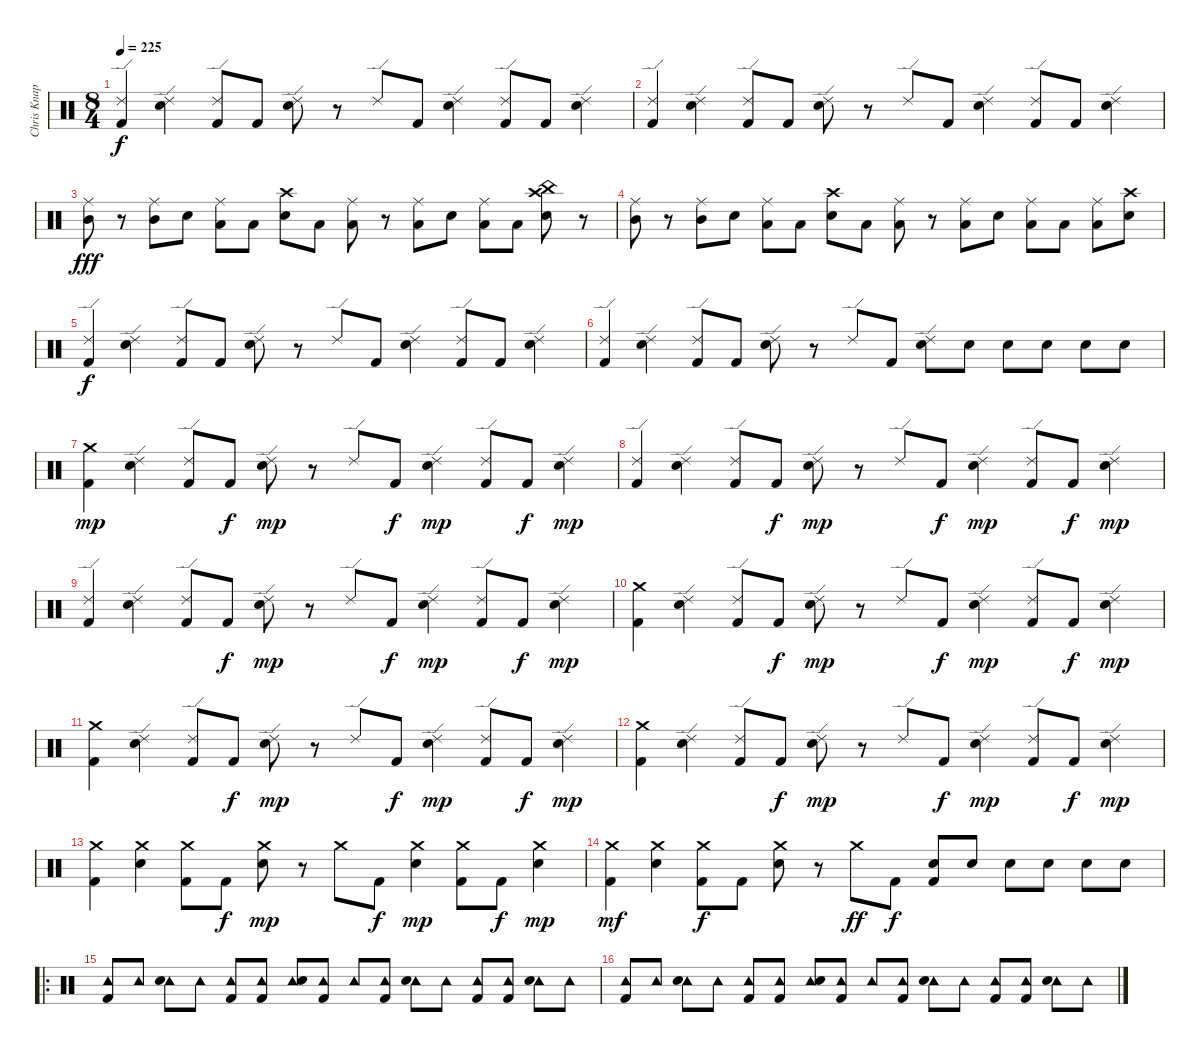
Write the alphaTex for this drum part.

\track ("Chris Knapp" "Chris Knap") {instrument percussion}
\staff {score}
\articulation defaults
\ts (8 4)
\tempo 225
\clef neutral
\ks c
("Ride (edge) 2" "Kick (hit) 2").4{dy f} ("Ride (edge) 2" "Electric Snare (hit)").4 ("Ride (edge) 2" "Kick (hit) 2").8 "Kick (hit) 2".8 ("Ride (edge) 2" "Electric Snare (hit)").8 r.8 "Ride (edge) 2".8 "Kick (hit) 2".8 ("Ride (edge) 2" "Electric Snare (hit)").4 ("Ride (edge) 2" "Kick (hit) 2").8 "Kick (hit) 2".8 ("Ride (edge) 2" "Electric Snare (hit)").4 |
("Ride (edge) 2" "Kick (hit) 2").4 ("Ride (edge) 2" "Electric Snare (hit)").4 ("Ride (edge) 2" "Kick (hit) 2").8 "Kick (hit) 2".8 ("Ride (edge) 2" "Electric Snare (hit)").8 r.8 "Ride (edge) 2".8 "Kick (hit) 2".8 ("Ride (edge) 2" "Electric Snare (hit)").4 ("Ride (edge) 2" "Kick (hit) 2").8 "Kick (hit) 2".8 ("Ride (edge) 2" "Electric Snare (hit)").4 |
("Ride (middle)" "Mid Tom (hit)").8{dy fff} r.8 ("Ride (middle)" "Mid Tom (hit)").8 "Electric Snare (hit)".8 ("Ride (middle)" "Low Floor Tom (hit)").8 "Low Floor Tom (hit)".8 ("Crash high (hit)" "Electric Snare (hit)").8 "Low Floor Tom (hit)".8 ("Ride (middle)" "Low Floor Tom (hit)").8 r.8 ("Ride (middle)" "Low Floor Tom (hit)").8 "Electric Snare (hit)".8 ("Ride (middle)" "Low Floor Tom (hit)").8 "Low Floor Tom (hit)".8 ("China (hit)" "Electric Snare (hit)" "Crash high (hit)").8 r.8 |
("Ride (middle)" "Mid Tom (hit)").8 r.8 ("Ride (middle)" "Mid Tom (hit)").8 "Electric Snare (hit)".8 ("Ride (middle)" "Low Floor Tom (hit)").8 "Low Floor Tom (hit)".8 ("Crash high (hit)" "Electric Snare (hit)").8 "Low Floor Tom (hit)".8 ("Ride (middle)" "Low Floor Tom (hit)").8 r.8 ("Ride (middle)" "Low Floor Tom (hit)").8 "Electric Snare (hit)".8 ("Ride (middle)" "Low Floor Tom (hit)").8 "Low Floor Tom (hit)".8 ("Ride (middle)" "Low Floor Tom (hit)").8 ("Electric Snare (hit)" "Crash high (hit)").8 |
("Ride (edge) 2" "Kick (hit) 2").4{dy f} ("Ride (edge) 2" "Electric Snare (hit)").4 ("Ride (edge) 2" "Kick (hit) 2").8 "Kick (hit) 2".8 ("Ride (edge) 2" "Electric Snare (hit)").8 r.8 "Ride (edge) 2".8 "Kick (hit) 2".8 ("Ride (edge) 2" "Electric Snare (hit)").4 ("Ride (edge) 2" "Kick (hit) 2").8 "Kick (hit) 2".8 ("Ride (edge) 2" "Electric Snare (hit)").4 |
("Ride (edge) 2" "Kick (hit) 2").4 ("Ride (edge) 2" "Electric Snare (hit)").4 ("Ride (edge) 2" "Kick (hit) 2").8 "Kick (hit) 2".8 ("Ride (edge) 2" "Electric Snare (hit)").8 r.8 "Ride (edge) 2".8 "Kick (hit) 2".8 ("Ride (edge) 2" "Electric Snare (hit)").8 "Electric Snare (hit)".8 "Electric Snare (hit)".8 "Electric Snare (hit)".8 "Electric Snare (hit)".8 "Electric Snare (hit)".8 |
("Crash medium (hit)" "Kick (hit) 2").4{dy mp} ("Ride (edge) 2" "Electric Snare (hit)").4 ("Ride (edge) 2" "Kick (hit) 2").8 "Kick (hit) 2".8{dy f} ("Ride (edge) 2" "Electric Snare (hit)").8{dy mp} r.8 "Ride (edge) 2".8 "Kick (hit) 2".8{dy f} ("Ride (edge) 2" "Electric Snare (hit)").4{dy mp} ("Ride (edge) 2" "Kick (hit) 2").8 "Kick (hit) 2".8{dy f} ("Ride (edge) 2" "Electric Snare (hit)").4{dy mp} |
("Ride (edge) 2" "Kick (hit) 2").4 ("Ride (edge) 2" "Electric Snare (hit)").4 ("Ride (edge) 2" "Kick (hit) 2").8 "Kick (hit) 2".8{dy f} ("Ride (edge) 2" "Electric Snare (hit)").8{dy mp} r.8 "Ride (edge) 2".8 "Kick (hit) 2".8{dy f} ("Ride (edge) 2" "Electric Snare (hit)").4{dy mp} ("Ride (edge) 2" "Kick (hit) 2").8 "Kick (hit) 2".8{dy f} ("Ride (edge) 2" "Electric Snare (hit)").4{dy mp} |
("Ride (edge) 2" "Kick (hit) 2").4 ("Ride (edge) 2" "Electric Snare (hit)").4 ("Ride (edge) 2" "Kick (hit) 2").8 "Kick (hit) 2".8{dy f} ("Ride (edge) 2" "Electric Snare (hit)").8{dy mp} r.8 "Ride (edge) 2".8 "Kick (hit) 2".8{dy f} ("Ride (edge) 2" "Electric Snare (hit)").4{dy mp} ("Ride (edge) 2" "Kick (hit) 2").8 "Kick (hit) 2".8{dy f} ("Ride (edge) 2" "Electric Snare (hit)").4{dy mp} |
("Crash medium (hit)" "Kick (hit) 2").4 ("Ride (edge) 2" "Electric Snare (hit)").4 ("Ride (edge) 2" "Kick (hit) 2").8 "Kick (hit) 2".8{dy f} ("Ride (edge) 2" "Electric Snare (hit)").8{dy mp} r.8 "Ride (edge) 2".8 "Kick (hit) 2".8{dy f} ("Ride (edge) 2" "Electric Snare (hit)").4{dy mp} ("Ride (edge) 2" "Kick (hit) 2").8 "Kick (hit) 2".8{dy f} ("Ride (edge) 2" "Electric Snare (hit)").4{dy mp} |
("Crash medium (hit)" "Kick (hit) 2").4 ("Ride (edge) 2" "Electric Snare (hit)").4 ("Ride (edge) 2" "Kick (hit) 2").8 "Kick (hit) 2".8{dy f} ("Ride (edge) 2" "Electric Snare (hit)").8{dy mp} r.8 "Ride (edge) 2".8 "Kick (hit) 2".8{dy f} ("Ride (edge) 2" "Electric Snare (hit)").4{dy mp} ("Ride (edge) 2" "Kick (hit) 2").8 "Kick (hit) 2".8{dy f} ("Ride (edge) 2" "Electric Snare (hit)").4{dy mp} |
("Crash medium (hit)" "Kick (hit) 2").4 ("Ride (edge) 2" "Electric Snare (hit)").4 ("Ride (edge) 2" "Kick (hit) 2").8 "Kick (hit) 2".8{dy f} ("Ride (edge) 2" "Electric Snare (hit)").8{dy mp} r.8 "Ride (edge) 2".8 "Kick (hit) 2".8{dy f} ("Ride (edge) 2" "Electric Snare (hit)").4{dy mp} ("Ride (edge) 2" "Kick (hit) 2").8 "Kick (hit) 2".8{dy f} ("Ride (edge) 2" "Electric Snare (hit)").4{dy mp} |
("Crash medium (hit)" "Kick (hit) 2").4 ("Crash medium (hit)" "Electric Snare (hit)").4 ("Crash medium (hit)" "Kick (hit) 2").8 "Kick (hit) 2".8{dy f} ("Crash medium (hit)" "Electric Snare (hit)").8{dy mp} r.8 "Crash medium (hit)".8 "Kick (hit) 2".8{dy f} ("Crash medium (hit)" "Electric Snare (hit)").4{dy mp} ("Crash medium (hit)" "Kick (hit) 2").8 "Kick (hit) 2".8{dy f} ("Crash medium (hit)" "Electric Snare (hit)").4{dy mp} |
("Crash medium (hit)" "Kick (hit) 2").4{dy mf} ("Crash medium (hit)" "Electric Snare (hit)").4 ("Crash medium (hit)" "Kick (hit) 2").8{dy f} "Kick (hit) 2".8 ("Crash medium (hit)" "Electric Snare (hit)").8 r.8 "Crash medium (hit)".8{dy ff} "Kick (hit) 2".8{dy f} ("Electric Snare (hit)" "Kick (hit) 2").8 "Electric Snare (hit)".8 "Electric Snare (hit)".8 "Electric Snare (hit)".8 "Electric Snare (hit)".8 "Electric Snare (hit)".8 |
\ro
("Tambourine (hit)" "Kick (hit) 2").8 "Tambourine (hit)".8 ("Tambourine (hit)" "Electric Snare (hit)").8 "Tambourine (hit)".8 ("Tambourine (hit)" "Kick (hit) 2").8 ("Tambourine (hit)" "Kick (hit) 2").8 ("Tambourine (hit)" "Electric Snare (hit)").8 ("Tambourine (hit)" "Kick (hit) 2").8 "Tambourine (hit)".8 ("Tambourine (hit)" "Kick (hit) 2").8 ("Tambourine (hit)" "Electric Snare (hit)").8 "Tambourine (hit)".8 ("Tambourine (hit)" "Kick (hit) 2").8 ("Tambourine (hit)" "Kick (hit) 2").8 ("Tambourine (hit)" "Electric Snare (hit)").8 "Tambourine (hit)".8 |
("Tambourine (hit)" "Kick (hit) 2").8 "Tambourine (hit)".8 ("Tambourine (hit)" "Electric Snare (hit)").8 "Tambourine (hit)".8 ("Tambourine (hit)" "Kick (hit) 2").8 ("Tambourine (hit)" "Kick (hit) 2").8 ("Tambourine (hit)" "Electric Snare (hit)").8 ("Tambourine (hit)" "Kick (hit) 2").8 "Tambourine (hit)".8 ("Tambourine (hit)" "Kick (hit) 2").8 ("Tambourine (hit)" "Electric Snare (hit)").8 "Tambourine (hit)".8 ("Tambourine (hit)" "Kick (hit) 2").8 ("Tambourine (hit)" "Kick (hit) 2").8 ("Tambourine (hit)" "Electric Snare (hit)").8 "Tambourine (hit)".8
